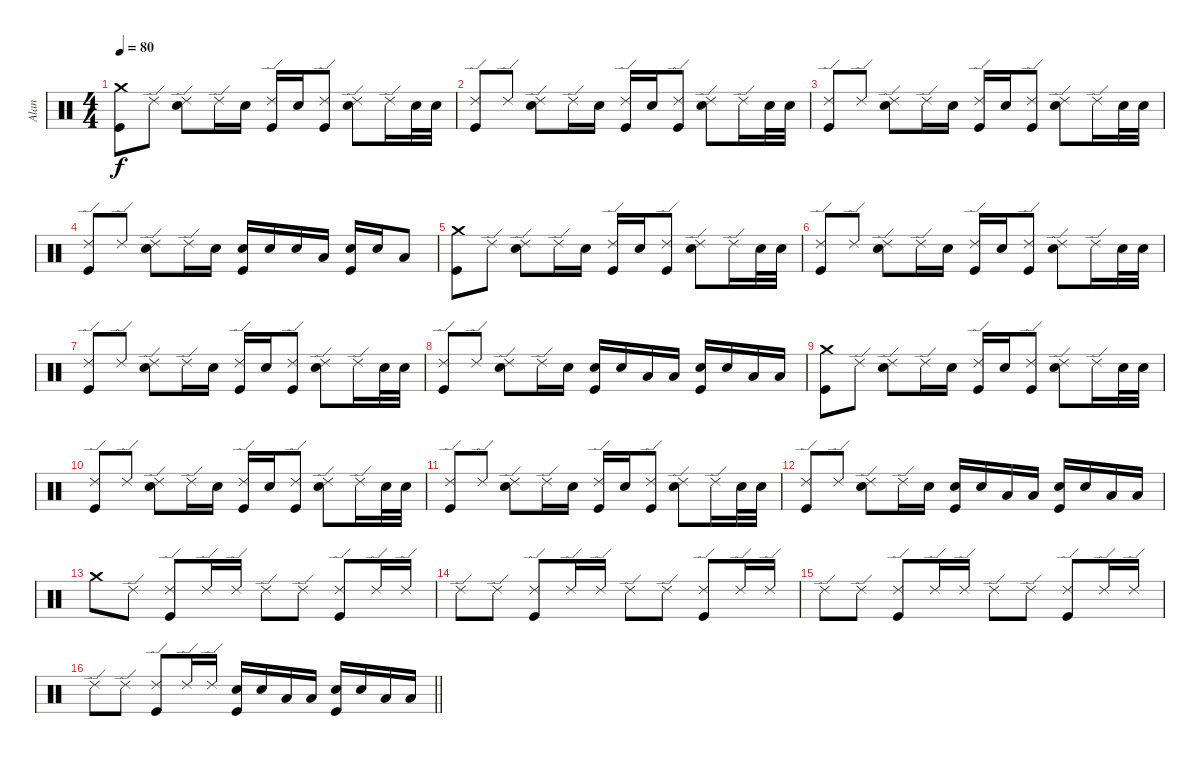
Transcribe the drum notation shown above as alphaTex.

\track ("Alan" "Alan") {instrument percussion}
\staff {score}
\articulation defaults
\ts (4 4)
\tempo 80
\clef neutral
\ks c
("Crash medium (hit)" "Kick (hit)").8{dy f} "Ride (edge) 2".8 ("Ride (edge) 2" "Snare (hit) 2").8 "Ride (edge) 2".16 "Snare (hit) 2".16 ("Ride (edge) 2" "Kick (hit)").16 "Snare (hit) 2".16 ("Ride (edge) 2" "Kick (hit)").8 ("Ride (edge) 2" "Snare (hit) 2").8 "Ride (edge) 2".16 "Snare (hit) 2".32 "Snare (hit) 2".32 |
("Ride (edge) 2" "Kick (hit)").8 "Ride (edge) 2".8 ("Ride (edge) 2" "Snare (hit) 2").8 "Ride (edge) 2".16 "Snare (hit) 2".16 ("Ride (edge) 2" "Kick (hit)").16 "Snare (hit) 2".16 ("Ride (edge) 2" "Kick (hit)").8 ("Ride (edge) 2" "Snare (hit) 2").8 "Ride (edge) 2".16 "Snare (hit) 2".32 "Snare (hit) 2".32 |
("Ride (edge) 2" "Kick (hit)").8 "Ride (edge) 2".8 ("Ride (edge) 2" "Snare (hit) 2").8 "Ride (edge) 2".16 "Snare (hit) 2".16 ("Ride (edge) 2" "Kick (hit)").16 "Snare (hit) 2".16 ("Ride (edge) 2" "Kick (hit)").8 ("Ride (edge) 2" "Snare (hit) 2").8 "Ride (edge) 2".16 "Snare (hit) 2".32 "Snare (hit) 2".32 |
("Ride (edge) 2" "Kick (hit)").8 "Ride (edge) 2".8 ("Ride (edge) 2" "Snare (hit) 2").8 "Ride (edge) 2".16 "Snare (hit) 2".16 ("Kick (hit)" "Snare (hit) 2").16 "Snare (hit) 2".16 "Snare (hit) 2".16 "Low Tom (hit)".16 ("Kick (hit)" "Snare (hit) 2").16 "Snare (hit) 2".16 "Low Floor Tom (hit)".8 |
("Crash medium (hit)" "Kick (hit)").8 "Ride (edge) 2".8 ("Ride (edge) 2" "Snare (hit) 2").8 "Ride (edge) 2".16 "Snare (hit) 2".16 ("Ride (edge) 2" "Kick (hit)").16 "Snare (hit) 2".16 ("Ride (edge) 2" "Kick (hit)").8 ("Ride (edge) 2" "Snare (hit) 2").8 "Ride (edge) 2".16 "Snare (hit) 2".32 "Snare (hit) 2".32 |
("Ride (edge) 2" "Kick (hit)").8 "Ride (edge) 2".8 ("Ride (edge) 2" "Snare (hit) 2").8 "Ride (edge) 2".16 "Snare (hit) 2".16 ("Ride (edge) 2" "Kick (hit)").16 "Snare (hit) 2".16 ("Ride (edge) 2" "Kick (hit)").8 ("Ride (edge) 2" "Snare (hit) 2").8 "Ride (edge) 2".16 "Snare (hit) 2".32 "Snare (hit) 2".32 |
("Ride (edge) 2" "Kick (hit)").8 "Ride (edge) 2".8 ("Ride (edge) 2" "Snare (hit) 2").8 "Ride (edge) 2".16 "Snare (hit) 2".16 ("Ride (edge) 2" "Kick (hit)").16 "Snare (hit) 2".16 ("Ride (edge) 2" "Kick (hit)").8 ("Ride (edge) 2" "Snare (hit) 2").8 "Ride (edge) 2".16 "Snare (hit) 2".32 "Snare (hit) 2".32 |
("Ride (edge) 2" "Kick (hit)").8 "Ride (edge) 2".8 ("Ride (edge) 2" "Snare (hit) 2").8 "Ride (edge) 2".16 "Snare (hit) 2".16 ("Kick (hit)" "Snare (hit) 2").16 "Snare (hit) 2".16 "Low Floor Tom (hit)".16 "Low Tom (hit)".16 ("Kick (hit)" "Snare (hit) 2").16 "Snare (hit) 2".16 "Low Floor Tom (hit)".16 "Low Tom (hit)".16 |
("Crash medium (hit)" "Kick (hit)").8 "Ride (edge) 2".8 ("Ride (edge) 2" "Snare (hit) 2").8 "Ride (edge) 2".16 "Snare (hit) 2".16 ("Ride (edge) 2" "Kick (hit)").16 "Snare (hit) 2".16 ("Ride (edge) 2" "Kick (hit)").8 ("Ride (edge) 2" "Snare (hit) 2").8 "Ride (edge) 2".16 "Snare (hit) 2".32 "Snare (hit) 2".32 |
("Ride (edge) 2" "Kick (hit)").8 "Ride (edge) 2".8 ("Ride (edge) 2" "Snare (hit) 2").8 "Ride (edge) 2".16 "Snare (hit) 2".16 ("Ride (edge) 2" "Kick (hit)").16 "Snare (hit) 2".16 ("Ride (edge) 2" "Kick (hit)").8 ("Ride (edge) 2" "Snare (hit) 2").8 "Ride (edge) 2".16 "Snare (hit) 2".32 "Snare (hit) 2".32 |
("Ride (edge) 2" "Kick (hit)").8 "Ride (edge) 2".8 ("Ride (edge) 2" "Snare (hit) 2").8 "Ride (edge) 2".16 "Snare (hit) 2".16 ("Ride (edge) 2" "Kick (hit)").16 "Snare (hit) 2".16 ("Ride (edge) 2" "Kick (hit)").8 ("Ride (edge) 2" "Snare (hit) 2").8 "Ride (edge) 2".16 "Snare (hit) 2".32 "Snare (hit) 2".32 |
("Ride (edge) 2" "Kick (hit)").8 "Ride (edge) 2".8 ("Ride (edge) 2" "Snare (hit) 2").8 "Ride (edge) 2".16 "Snare (hit) 2".16 ("Kick (hit)" "Snare (hit) 2").16 "Snare (hit) 2".16 "Low Floor Tom (hit)".16 "Low Tom (hit)".16 ("Kick (hit)" "Snare (hit) 2").16 "Snare (hit) 2".16 "Low Floor Tom (hit)".16 "Low Tom (hit)".16 |
"Crash medium (hit)".8 "Ride (edge) 2".8 ("Ride (edge) 2" "Kick (hit)").8 "Ride (edge) 2".16 "Ride (edge) 2".16 "Ride (edge) 2".8 "Ride (edge) 2".8 ("Ride (edge) 2" "Kick (hit)").8 "Ride (edge) 2".16 "Ride (edge) 2".16 |
"Ride (edge) 2".8 "Ride (edge) 2".8 ("Ride (edge) 2" "Kick (hit)").8 "Ride (edge) 2".16 "Ride (edge) 2".16 "Ride (edge) 2".8 "Ride (edge) 2".8 ("Ride (edge) 2" "Kick (hit)").8 "Ride (edge) 2".16 "Ride (edge) 2".16 |
"Ride (edge) 2".8 "Ride (edge) 2".8 ("Ride (edge) 2" "Kick (hit)").8 "Ride (edge) 2".16 "Ride (edge) 2".16 "Ride (edge) 2".8 "Ride (edge) 2".8 ("Ride (edge) 2" "Kick (hit)").8 "Ride (edge) 2".16 "Ride (edge) 2".16 |
\barLineRight lightlight "Ride (edge) 2".8 "Ride (edge) 2".8
("Ride (edge) 2" "Kick (hit)").8 "Ride (edge) 2".16 "Ride (edge) 2".16 ("Kick (hit)" "Snare (hit) 2").16 "Snare (hit) 2".16 "Low Floor Tom (hit)".16 "Low Tom (hit)".16 ("Kick (hit)" "Snare (hit) 2").16 "Snare (hit) 2".16 "Low Floor Tom (hit)".16 "Low Tom (hit)".16
